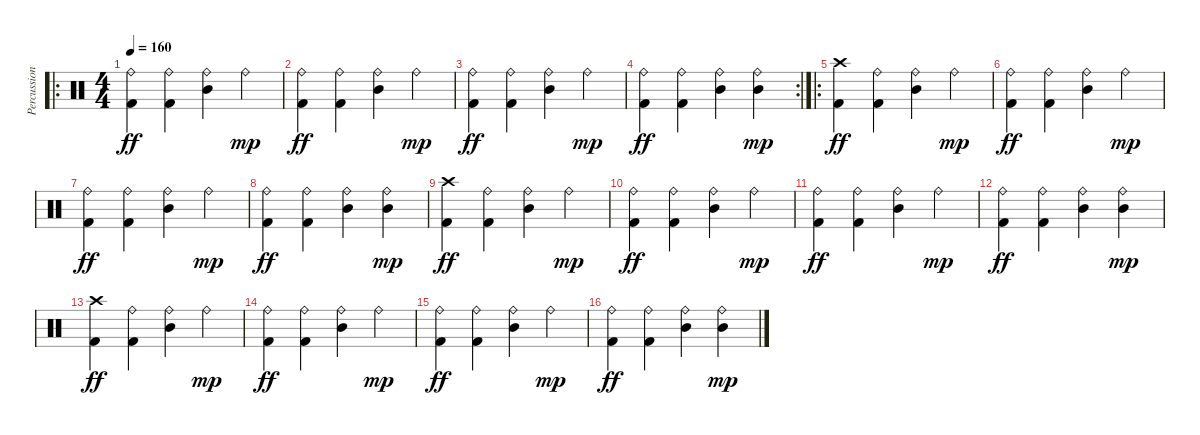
\track ("Percussions" "Percussion") {instrument percussion}
\staff {score}
\articulation defaults
\ro
\ts (4 4)
\tempo 160
\clef neutral
\ks c
("Ride (bell)" "Kick (hit) 2").4{dy ff} ("Ride (bell)" "Kick (hit) 2").4 ("Ride (bell)" "Mid Tom (hit)").4 "Ride (bell)".4{dy mp} |
("Ride (bell)" "Kick (hit) 2").4{dy ff} ("Ride (bell)" "Kick (hit) 2").4 ("Ride (bell)" "Mid Tom (hit)").4 "Ride (bell)".4{dy mp} |
("Ride (bell)" "Kick (hit) 2").4{dy ff} ("Ride (bell)" "Kick (hit) 2").4 ("Ride (bell)" "Mid Tom (hit)").4 "Ride (bell)".4{dy mp} |
\rc 2
("Ride (bell)" "Kick (hit) 2").4{dy ff} ("Ride (bell)" "Kick (hit) 2").4 ("Ride (bell)" "Mid Tom (hit)").4 ("Ride (bell)" "Mid Tom (hit)").4{dy mp} |
\ro
("Crash high (hit)" "Kick (hit) 2").4{dy ff} ("Ride (bell)" "Kick (hit) 2").4 ("Ride (bell)" "Mid Tom (hit)").4 "Ride (bell)".4{dy mp} |
("Ride (bell)" "Kick (hit) 2").4{dy ff} ("Ride (bell)" "Kick (hit) 2").4 ("Ride (bell)" "Mid Tom (hit)").4 "Ride (bell)".4{dy mp} |
("Ride (bell)" "Kick (hit) 2").4{dy ff} ("Ride (bell)" "Kick (hit) 2").4 ("Ride (bell)" "Mid Tom (hit)").4 "Ride (bell)".4{dy mp} |
("Ride (bell)" "Kick (hit) 2").4{dy ff} ("Ride (bell)" "Kick (hit) 2").4 ("Ride (bell)" "Mid Tom (hit)").4 ("Ride (bell)" "Mid Tom (hit)").4{dy mp} |
("Crash high (hit)" "Kick (hit) 2").4{dy ff} ("Ride (bell)" "Kick (hit) 2").4 ("Ride (bell)" "Mid Tom (hit)").4 "Ride (bell)".4{dy mp} |
("Ride (bell)" "Kick (hit) 2").4{dy ff} ("Ride (bell)" "Kick (hit) 2").4 ("Ride (bell)" "Mid Tom (hit)").4 "Ride (bell)".4{dy mp} |
("Ride (bell)" "Kick (hit) 2").4{dy ff} ("Ride (bell)" "Kick (hit) 2").4 ("Ride (bell)" "Mid Tom (hit)").4 "Ride (bell)".4{dy mp} |
("Ride (bell)" "Kick (hit) 2").4{dy ff} ("Ride (bell)" "Kick (hit) 2").4 ("Ride (bell)" "Mid Tom (hit)").4 ("Ride (bell)" "Mid Tom (hit)").4{dy mp} |
("Crash high (hit)" "Kick (hit) 2").4{dy ff} ("Ride (bell)" "Kick (hit) 2").4 ("Ride (bell)" "Mid Tom (hit)").4 "Ride (bell)".4{dy mp} |
("Ride (bell)" "Kick (hit) 2").4{dy ff} ("Ride (bell)" "Kick (hit) 2").4 ("Ride (bell)" "Mid Tom (hit)").4 "Ride (bell)".4{dy mp} |
("Ride (bell)" "Kick (hit) 2").4{dy ff} ("Ride (bell)" "Kick (hit) 2").4 ("Ride (bell)" "Mid Tom (hit)").4 "Ride (bell)".4{dy mp} |
("Ride (bell)" "Kick (hit) 2").4{dy ff} ("Ride (bell)" "Kick (hit) 2").4 ("Ride (bell)" "Mid Tom (hit)").4 ("Ride (bell)" "Mid Tom (hit)").4{dy mp}
